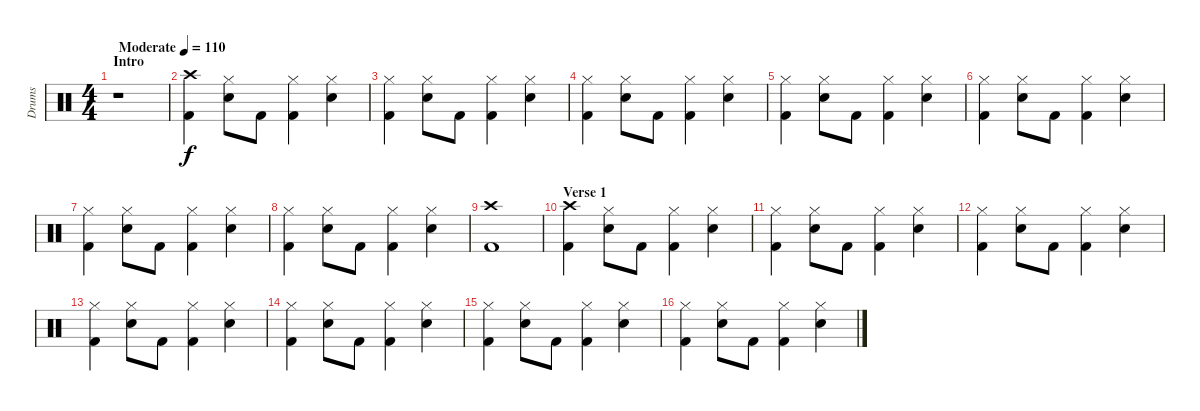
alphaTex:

\track ("Drums" "Drums") {instrument percussion}
\staff {score}
\articulation defaults
\ts (4 4)
\section ("" "Intro")
\tempo (110 "Moderate")
\clef neutral
\ks c
r.1{dy f} |
("Crash high (hit)" "Kick (hit) 2").4 ("Hi-Hat (closed)" "Snare (hit) 2").8 "Kick (hit) 2".8 ("Hi-Hat (closed)" "Kick (hit) 2").4 ("Hi-Hat (closed)" "Snare (hit) 2").4 |
("Hi-Hat (closed)" "Kick (hit) 2").4 ("Hi-Hat (closed)" "Snare (hit) 2").8 "Kick (hit) 2".8 ("Hi-Hat (closed)" "Kick (hit) 2").4 ("Hi-Hat (closed)" "Snare (hit) 2").4 |
("Hi-Hat (closed)" "Kick (hit) 2").4 ("Hi-Hat (closed)" "Snare (hit) 2").8 "Kick (hit) 2".8 ("Hi-Hat (closed)" "Kick (hit) 2").4 ("Hi-Hat (closed)" "Snare (hit) 2").4 |
("Hi-Hat (closed)" "Kick (hit) 2").4 ("Hi-Hat (closed)" "Snare (hit) 2").8 "Kick (hit) 2".8 ("Hi-Hat (closed)" "Kick (hit) 2").4 ("Hi-Hat (closed)" "Snare (hit) 2").4 |
("Hi-Hat (closed)" "Kick (hit) 2").4 ("Hi-Hat (closed)" "Snare (hit) 2").8 "Kick (hit) 2".8 ("Hi-Hat (closed)" "Kick (hit) 2").4 ("Hi-Hat (closed)" "Snare (hit) 2").4 |
("Hi-Hat (closed)" "Kick (hit) 2").4 ("Hi-Hat (closed)" "Snare (hit) 2").8 "Kick (hit) 2".8 ("Hi-Hat (closed)" "Kick (hit) 2").4 ("Hi-Hat (closed)" "Snare (hit) 2").4 |
("Hi-Hat (closed)" "Kick (hit) 2").4 ("Hi-Hat (closed)" "Snare (hit) 2").8 "Kick (hit) 2".8 ("Hi-Hat (closed)" "Kick (hit) 2").4 ("Hi-Hat (closed)" "Snare (hit) 2").4 |
("Crash high (hit)" "Kick (hit) 2").1 |
\section ("" "Verse 1")
("Crash high (hit)" "Kick (hit) 2").4 ("Hi-Hat (closed)" "Snare (hit) 2").8 "Kick (hit) 2".8 ("Hi-Hat (closed)" "Kick (hit) 2").4 ("Hi-Hat (closed)" "Snare (hit) 2").4 |
("Hi-Hat (closed)" "Kick (hit) 2").4 ("Hi-Hat (closed)" "Snare (hit) 2").8 "Kick (hit) 2".8 ("Hi-Hat (closed)" "Kick (hit) 2").4 ("Hi-Hat (closed)" "Snare (hit) 2").4 |
("Hi-Hat (closed)" "Kick (hit) 2").4 ("Hi-Hat (closed)" "Snare (hit) 2").8 "Kick (hit) 2".8 ("Hi-Hat (closed)" "Kick (hit) 2").4 ("Hi-Hat (closed)" "Snare (hit) 2").4 |
("Hi-Hat (closed)" "Kick (hit) 2").4 ("Hi-Hat (closed)" "Snare (hit) 2").8 "Kick (hit) 2".8 ("Hi-Hat (closed)" "Kick (hit) 2").4 ("Hi-Hat (closed)" "Snare (hit) 2").4 |
("Hi-Hat (closed)" "Kick (hit) 2").4 ("Hi-Hat (closed)" "Snare (hit) 2").8 "Kick (hit) 2".8 ("Hi-Hat (closed)" "Kick (hit) 2").4 ("Hi-Hat (closed)" "Snare (hit) 2").4 |
("Hi-Hat (closed)" "Kick (hit) 2").4 ("Hi-Hat (closed)" "Snare (hit) 2").8 "Kick (hit) 2".8 ("Hi-Hat (closed)" "Kick (hit) 2").4 ("Hi-Hat (closed)" "Snare (hit) 2").4 |
("Hi-Hat (closed)" "Kick (hit) 2").4 ("Hi-Hat (closed)" "Snare (hit) 2").8 "Kick (hit) 2".8 ("Hi-Hat (closed)" "Kick (hit) 2").4 ("Hi-Hat (closed)" "Snare (hit) 2").4
